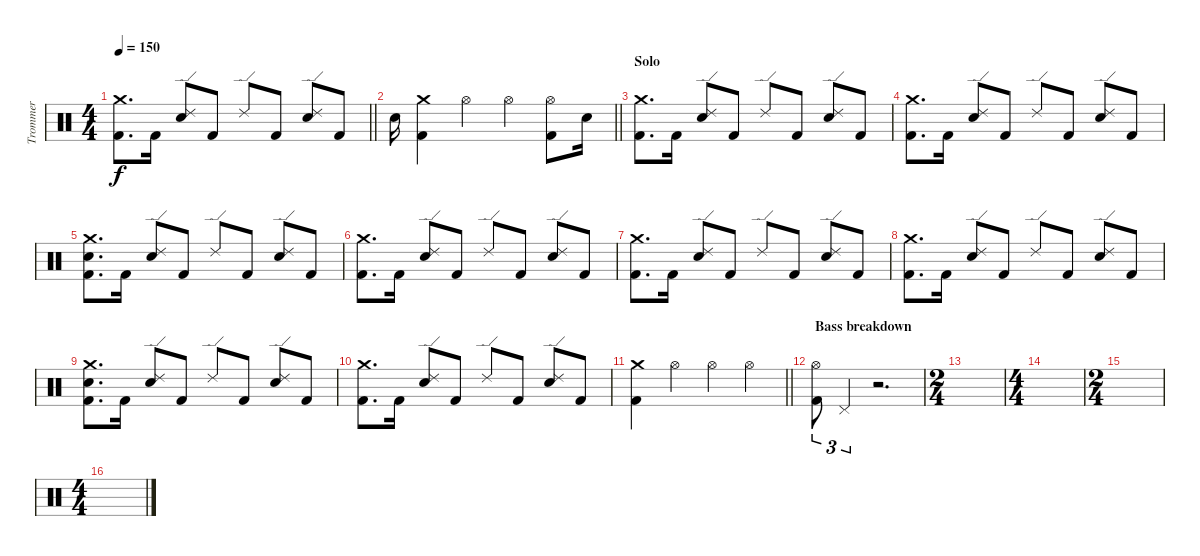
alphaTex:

\track ("Trommer" "Trommer") {instrument percussion}
\staff {score}
\articulation defaults
\ts (4 4)
\tempo 150
\clef neutral
\barLineRight lightlight
\ks c
("Crash medium (hit)" "Kick (hit) 2").8{d dy f} "Kick (hit) 2".16 ("Ride (edge) 2" "Snare (hit) 2").8 "Kick (hit) 2".8 "Ride (edge) 2".8 "Kick (hit) 2".8 ("Ride (edge) 2" "Snare (hit) 2").8 "Kick (hit) 2".8 |
\barLineRight lightlight "Snare (hit) 2".16
("Crash medium (hit)" "Kick (hit) 2").4 "Hi-Hat (open)".4 "Hi-Hat (open)".4 ("Hi-Hat (open)" "Kick (hit) 2").8 "Snare (hit) 2".16 |
\section ("" "Solo")
("Crash medium (hit)" "Kick (hit) 2").8{d} "Kick (hit) 2".16 ("Ride (edge) 2" "Snare (hit) 2").8 "Kick (hit) 2".8 "Ride (edge) 2".8 "Kick (hit) 2".8 ("Ride (edge) 2" "Snare (hit) 2").8 "Kick (hit) 2".8 |
("Crash medium (hit)" "Kick (hit) 2").8{d} "Kick (hit) 2".16 ("Ride (edge) 2" "Snare (hit) 2").8 "Kick (hit) 2".8 "Ride (edge) 2".8 "Kick (hit) 2".8 ("Ride (edge) 2" "Snare (hit) 2").8 "Kick (hit) 2".8 |
("Crash medium (hit)" "Snare (hit) 2" "Kick (hit) 2").8{d} "Kick (hit) 2".16 ("Ride (edge) 2" "Snare (hit) 2").8 "Kick (hit) 2".8 "Ride (edge) 2".8 "Kick (hit) 2".8 ("Ride (edge) 2" "Snare (hit) 2").8 "Kick (hit) 2".8 |
("Crash medium (hit)" "Kick (hit) 2").8{d} "Kick (hit) 2".16 ("Ride (edge) 2" "Snare (hit) 2").8 "Kick (hit) 2".8 "Ride (edge) 2".8 "Kick (hit) 2".8 ("Ride (edge) 2" "Snare (hit) 2").8 "Kick (hit) 2".8 |
("Crash medium (hit)" "Kick (hit) 2").8{d} "Kick (hit) 2".16 ("Ride (edge) 2" "Snare (hit) 2").8 "Kick (hit) 2".8 "Ride (edge) 2".8 "Kick (hit) 2".8 ("Ride (edge) 2" "Snare (hit) 2").8 "Kick (hit) 2".8 |
("Crash medium (hit)" "Kick (hit) 2").8{d} "Kick (hit) 2".16 ("Ride (edge) 2" "Snare (hit) 2").8 "Kick (hit) 2".8 "Ride (edge) 2".8 "Kick (hit) 2".8 ("Ride (edge) 2" "Snare (hit) 2").8 "Kick (hit) 2".8 |
("Crash medium (hit)" "Snare (hit) 2" "Kick (hit) 2").8{d} "Kick (hit) 2".16 ("Ride (edge) 2" "Snare (hit) 2").8 "Kick (hit) 2".8 "Ride (edge) 2".8 "Kick (hit) 2".8 ("Ride (edge) 2" "Snare (hit) 2").8 "Kick (hit) 2".8 |
("Crash medium (hit)" "Kick (hit) 2").8{d} "Kick (hit) 2".16 ("Ride (edge) 2" "Snare (hit) 2").8 "Kick (hit) 2".8 "Ride (edge) 2".8 "Kick (hit) 2".8 ("Ride (edge) 2" "Snare (hit) 2").8 "Kick (hit) 2".8 |
\barLineRight lightlight
("Crash medium (hit)" "Kick (hit) 2").4 "Hi-Hat (open)".4 "Hi-Hat (open)".4 "Hi-Hat (open)".4 |
\section ("" " Bass breakdown")
("Hi-Hat (open)" "Kick (hit) 2").8{tu (3 2)} "Pedal Hi-Hat (hit)".4{tu (3 2)} r.2{d} |
\ts (2 4)
|
\ts (4 4)
|
\ts (2 4)
|
\ts (4 4)
